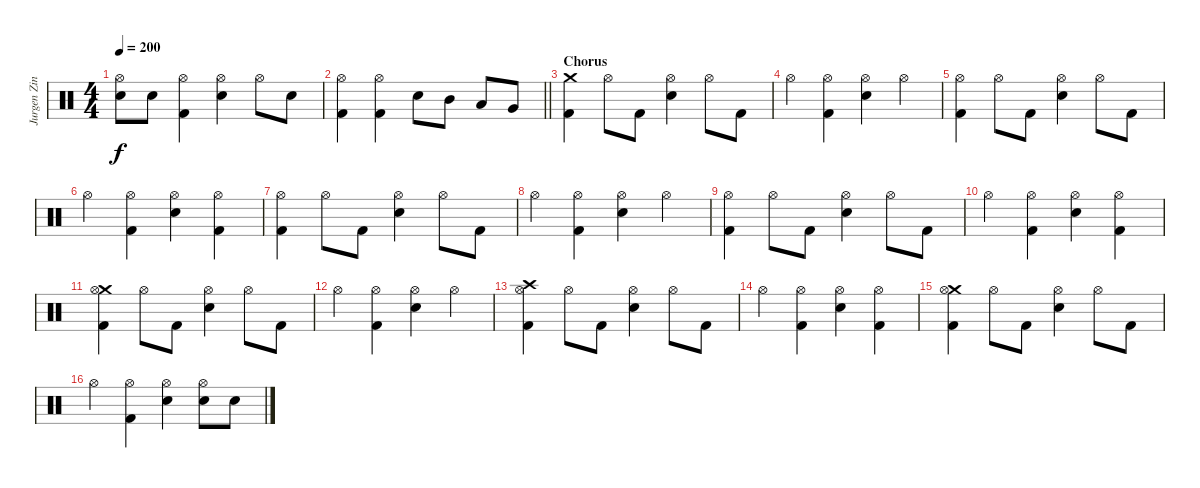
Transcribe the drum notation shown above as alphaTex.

\track ("Jurgen Zink" "Jurgen Zin") {instrument percussion}
\staff {score}
\articulation defaults
\ts (4 4)
\tempo 200
\clef neutral
\ks c
("Hi-Hat (open)" "Electric Snare (hit)").8{dy f} "Electric Snare (hit)".8 ("Hi-Hat (open)" "Kick (hit) 2").4 ("Hi-Hat (open)" "Electric Snare (hit)").4 "Hi-Hat (open)".8 "Electric Snare (hit)".8 |
\barLineRight lightlight
("Hi-Hat (open)" "Kick (hit) 2").4 ("Hi-Hat (open)" "Kick (hit) 2").4 "Electric Snare (hit)".8 "Mid Tom (hit)".8 "Low Tom (hit)".8 "Very Low Tom (hit)".8 |
\section ("" "Chorus")
("Crash medium (hit)" "Kick (hit) 2").4 "Hi-Hat (open)".8 "Kick (hit) 2".8 ("Hi-Hat (open)" "Electric Snare (hit)").4 "Hi-Hat (open)".8 "Kick (hit) 2".8 |
"Hi-Hat (open)".4 ("Hi-Hat (open)" "Kick (hit) 2").4 ("Hi-Hat (open)" "Electric Snare (hit)").4 "Hi-Hat (open)".4 |
("Hi-Hat (open)" "Kick (hit) 2").4 "Hi-Hat (open)".8 "Kick (hit) 2".8 ("Hi-Hat (open)" "Electric Snare (hit)").4 "Hi-Hat (open)".8 "Kick (hit) 2".8 |
"Hi-Hat (open)".4 ("Hi-Hat (open)" "Kick (hit) 2").4 ("Hi-Hat (open)" "Electric Snare (hit)").4 ("Hi-Hat (open)" "Kick (hit) 2").4 |
("Hi-Hat (open)" "Kick (hit) 2").4 "Hi-Hat (open)".8 "Kick (hit) 2".8 ("Hi-Hat (open)" "Electric Snare (hit)").4 "Hi-Hat (open)".8 "Kick (hit) 2".8 |
"Hi-Hat (open)".4 ("Hi-Hat (open)" "Kick (hit) 2").4 ("Hi-Hat (open)" "Electric Snare (hit)").4 "Hi-Hat (open)".4 |
("Hi-Hat (open)" "Kick (hit) 2").4 "Hi-Hat (open)".8 "Kick (hit) 2".8 ("Hi-Hat (open)" "Electric Snare (hit)").4 "Hi-Hat (open)".8 "Kick (hit) 2".8 |
"Hi-Hat (open)".4 ("Hi-Hat (open)" "Kick (hit) 2").4 ("Hi-Hat (open)" "Electric Snare (hit)").4 ("Hi-Hat (open)" "Kick (hit) 2").4 |
("Crash medium (hit)" "Hi-Hat (open)" "Kick (hit) 2").4 "Hi-Hat (open)".8 "Kick (hit) 2".8 ("Hi-Hat (open)" "Electric Snare (hit)").4 "Hi-Hat (open)".8 "Kick (hit) 2".8 |
"Hi-Hat (open)".4 ("Hi-Hat (open)" "Kick (hit) 2").4 ("Hi-Hat (open)" "Electric Snare (hit)").4 "Hi-Hat (open)".4 |
("Crash high (hit)" "Hi-Hat (open)" "Kick (hit) 2").4 "Hi-Hat (open)".8 "Kick (hit) 2".8 ("Hi-Hat (open)" "Electric Snare (hit)").4 "Hi-Hat (open)".8 "Kick (hit) 2".8 |
"Hi-Hat (open)".4 ("Hi-Hat (open)" "Kick (hit) 2").4 ("Hi-Hat (open)" "Electric Snare (hit)").4 ("Hi-Hat (open)" "Kick (hit) 2").4 |
("Crash medium (hit)" "Hi-Hat (open)" "Kick (hit) 2").4 "Hi-Hat (open)".8 "Kick (hit) 2".8 ("Hi-Hat (open)" "Electric Snare (hit)").4 "Hi-Hat (open)".8 "Kick (hit) 2".8 |
"Hi-Hat (open)".4 ("Hi-Hat (open)" "Kick (hit) 2").4 ("Hi-Hat (open)" "Electric Snare (hit)").4 ("Hi-Hat (open)" "Electric Snare (hit)").8 "Electric Snare (hit)".8
